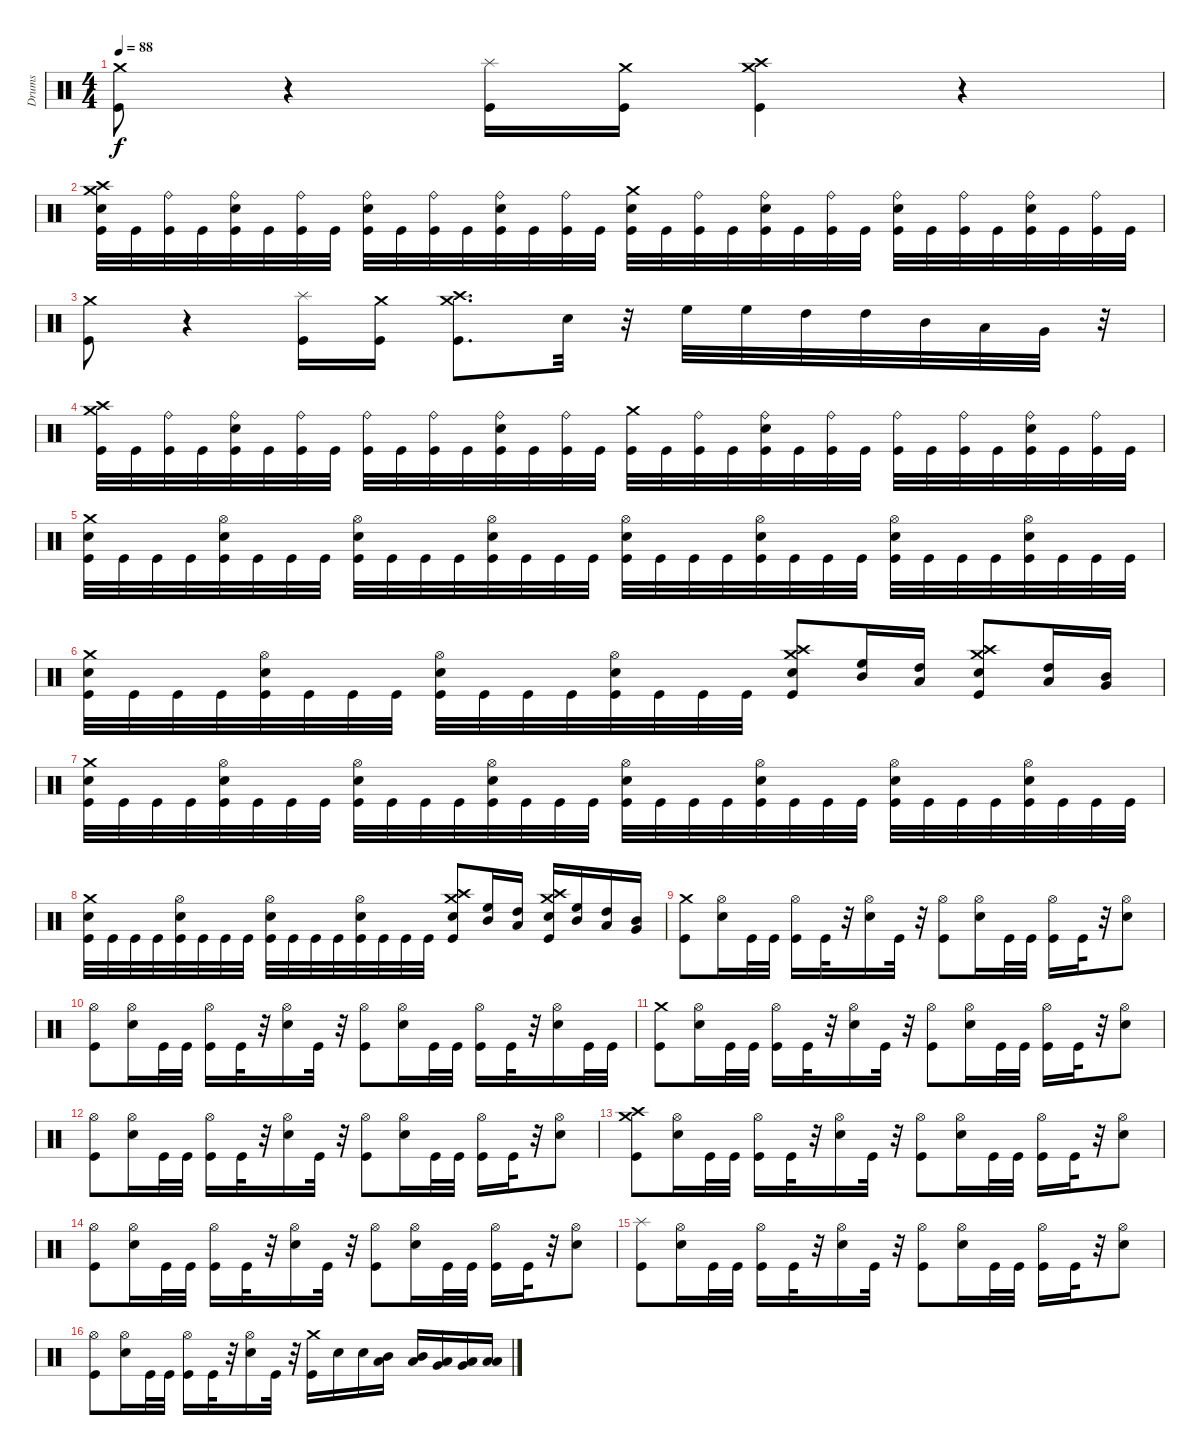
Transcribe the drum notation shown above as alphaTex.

\track ("Drums" "Drums") {instrument percussion}
\staff {score}
\articulation defaults
\ts (4 4)
\tempo 88
\clef neutral
\ks c
("Kick (hit)" "Crash medium (hit)").8{dy f} r.4 ("Splash (hit)" "Kick (hit)").16 ("Crash medium (hit)" "Kick (hit)").16 ("Crash medium (hit)" "Crash high (hit)" "Kick (hit)").4 r.4 |
("Snare (hit) 2" "Crash high (hit)" "Crash medium (hit)" "Kick (hit)").32 "Kick (hit)".32 ("Ride (bell)" "Kick (hit)").32 "Kick (hit)".32 ("Snare (hit) 2" "Ride (bell)" "Kick (hit)").32 "Kick (hit)".32 ("Ride (bell)" "Kick (hit)").32 "Kick (hit)".32 ("Snare (hit) 2" "Ride (bell)" "Kick (hit)").32 "Kick (hit)".32 ("Ride (bell)" "Kick (hit)").32 "Kick (hit)".32 ("Snare (hit) 2" "Ride (bell)" "Kick (hit)").32 "Kick (hit)".32 ("Ride (bell)" "Kick (hit)").32 "Kick (hit)".32 ("Snare (hit) 2" "Crash medium (hit)" "Kick (hit)").32 "Kick (hit)".32 ("Ride (bell)" "Kick (hit)").32 "Kick (hit)".32 ("Snare (hit) 2" "Ride (bell)" "Kick (hit)").32 "Kick (hit)".32 ("Ride (bell)" "Kick (hit)").32 "Kick (hit)".32 ("Snare (hit) 2" "Ride (bell)" "Kick (hit)").32 "Kick (hit)".32 ("Ride (bell)" "Kick (hit)").32 "Kick (hit)".32 ("Snare (hit) 2" "Ride (bell)" "Kick (hit)").32 "Kick (hit)".32 ("Ride (bell)" "Kick (hit)").32 "Kick (hit)".32 |
("Kick (hit)" "Crash medium (hit)").8 r.4 ("Splash (hit)" "Kick (hit)").16 ("Crash medium (hit)" "Kick (hit)").16 ("Crash medium (hit)" "Crash high (hit)" "Kick (hit)").8{d} "Snare (hit) 2".32 r.32 "High Floor Tom (hit)".32 "High Floor Tom (hit)".32 "High Tom (hit)".32 "High Tom (hit)".32 "Mid Tom (hit)".32 "Low Tom (hit)".32 "Very Low Tom (hit)".32 r.32 |
("Crash high (hit)" "Crash medium (hit)" "Kick (hit)").32 "Kick (hit)".32 ("Ride (bell)" "Kick (hit)").32 "Kick (hit)".32 ("Snare (hit) 2" "Ride (bell)" "Kick (hit)").32 "Kick (hit)".32 ("Ride (bell)" "Kick (hit)").32 "Kick (hit)".32 ("Ride (bell)" "Kick (hit)").32 "Kick (hit)".32 ("Ride (bell)" "Kick (hit)").32 "Kick (hit)".32 ("Snare (hit) 2" "Ride (bell)" "Kick (hit)").32 "Kick (hit)".32 ("Ride (bell)" "Kick (hit)").32 "Kick (hit)".32 ("Crash medium (hit)" "Kick (hit)").32 "Kick (hit)".32 ("Ride (bell)" "Kick (hit)").32 "Kick (hit)".32 ("Snare (hit) 2" "Ride (bell)" "Kick (hit)").32 "Kick (hit)".32 ("Ride (bell)" "Kick (hit)").32 "Kick (hit)".32 ("Ride (bell)" "Kick (hit)").32 "Kick (hit)".32 ("Ride (bell)" "Kick (hit)").32 "Kick (hit)".32 ("Snare (hit) 2" "Ride (bell)" "Kick (hit)").32 "Kick (hit)".32 ("Ride (bell)" "Kick (hit)").32 "Kick (hit)".32 |
("Crash medium (hit)" "Kick (hit)" "Snare (hit) 2").32 "Kick (hit)".32 "Kick (hit)".32 "Kick (hit)".32 ("Hi-Hat (open)" "Snare (hit) 2" "Kick (hit)").32 "Kick (hit)".32 "Kick (hit)".32 "Kick (hit)".32 ("Hi-Hat (open)" "Kick (hit)" "Snare (hit) 2").32 "Kick (hit)".32 "Kick (hit)".32 "Kick (hit)".32 ("Hi-Hat (open)" "Kick (hit)" "Snare (hit) 2").32 "Kick (hit)".32 "Kick (hit)".32 "Kick (hit)".32 ("Hi-Hat (open)" "Kick (hit)" "Snare (hit) 2").32 "Kick (hit)".32 "Kick (hit)".32 "Kick (hit)".32 ("Hi-Hat (open)" "Kick (hit)" "Snare (hit) 2").32 "Kick (hit)".32 "Kick (hit)".32 "Kick (hit)".32 ("Hi-Hat (open)" "Kick (hit)" "Snare (hit) 2").32 "Kick (hit)".32 "Kick (hit)".32 "Kick (hit)".32 ("Hi-Hat (open)" "Kick (hit)" "Snare (hit) 2").32 "Kick (hit)".32 "Kick (hit)".32 "Kick (hit)".32 |
("Crash medium (hit)" "Kick (hit)" "Snare (hit) 2").32 "Kick (hit)".32 "Kick (hit)".32 "Kick (hit)".32 ("Hi-Hat (open)" "Snare (hit) 2" "Kick (hit)").32 "Kick (hit)".32 "Kick (hit)".32 "Kick (hit)".32 ("Hi-Hat (open)" "Kick (hit)" "Snare (hit) 2").32 "Kick (hit)".32 "Kick (hit)".32 "Kick (hit)".32 ("Hi-Hat (open)" "Kick (hit)" "Snare (hit) 2").32 "Kick (hit)".32 "Kick (hit)".32 "Kick (hit)".32 ("Crash high (hit)" "Crash medium (hit)" "Kick (hit)" "Snare (hit) 2").8 ("Mid Tom (hit)" "High Floor Tom (hit)").16 ("Low Tom (hit)" "High Tom (hit)").16 ("Crash high (hit)" "Kick (hit)" "Snare (hit) 2" "Crash medium (hit)").8 ("Low Tom (hit)" "High Tom (hit)").16 ("Very Low Tom (hit)" "Mid Tom (hit)").16 |
("Crash medium (hit)" "Kick (hit)" "Snare (hit) 2").32 "Kick (hit)".32 "Kick (hit)".32 "Kick (hit)".32 ("Hi-Hat (open)" "Snare (hit) 2" "Kick (hit)").32 "Kick (hit)".32 "Kick (hit)".32 "Kick (hit)".32 ("Hi-Hat (open)" "Kick (hit)" "Snare (hit) 2").32 "Kick (hit)".32 "Kick (hit)".32 "Kick (hit)".32 ("Hi-Hat (open)" "Kick (hit)" "Snare (hit) 2").32 "Kick (hit)".32 "Kick (hit)".32 "Kick (hit)".32 ("Hi-Hat (open)" "Kick (hit)" "Snare (hit) 2").32 "Kick (hit)".32 "Kick (hit)".32 "Kick (hit)".32 ("Hi-Hat (open)" "Kick (hit)" "Snare (hit) 2").32 "Kick (hit)".32 "Kick (hit)".32 "Kick (hit)".32 ("Hi-Hat (open)" "Kick (hit)" "Snare (hit) 2").32 "Kick (hit)".32 "Kick (hit)".32 "Kick (hit)".32 ("Hi-Hat (open)" "Kick (hit)" "Snare (hit) 2").32 "Kick (hit)".32 "Kick (hit)".32 "Kick (hit)".32 |
("Crash medium (hit)" "Kick (hit)" "Snare (hit) 2").32 "Kick (hit)".32 "Kick (hit)".32 "Kick (hit)".32 ("Hi-Hat (open)" "Snare (hit) 2" "Kick (hit)").32 "Kick (hit)".32 "Kick (hit)".32 "Kick (hit)".32 ("Hi-Hat (open)" "Kick (hit)" "Snare (hit) 2").32 "Kick (hit)".32 "Kick (hit)".32 "Kick (hit)".32 ("Hi-Hat (open)" "Kick (hit)" "Snare (hit) 2").32 "Kick (hit)".32 "Kick (hit)".32 "Kick (hit)".32 ("Crash high (hit)" "Crash medium (hit)" "Kick (hit)" "Snare (hit) 2").8 ("Mid Tom (hit)" "High Floor Tom (hit)").16 ("Low Tom (hit)" "High Tom (hit)").16 ("Crash high (hit)" "Kick (hit)" "Snare (hit) 2" "Crash medium (hit)").16 ("Mid Tom (hit)" "High Floor Tom (hit)").16 ("Low Tom (hit)" "High Tom (hit)").16 ("Very Low Tom (hit)" "Mid Tom (hit)").16 |
("Crash medium (hit)" "Kick (hit)").8 ("Snare (hit) 2" "Hi-Hat (open)").16 "Kick (hit)".32 "Kick (hit)".32 ("Kick (hit)" "Hi-Hat (open)").16 "Kick (hit)".32 r.32 ("Snare (hit) 2" "Hi-Hat (open)").16 "Kick (hit)".32 r.32 ("Kick (hit)" "Hi-Hat (open)").8 ("Snare (hit) 2" "Hi-Hat (open)").16 "Kick (hit)".32 "Kick (hit)".32 ("Kick (hit)" "Hi-Hat (open)").16 "Kick (hit)".32 r.32 ("Snare (hit) 2" "Hi-Hat (open)").8 |
("Hi-Hat (open)" "Kick (hit)").8 ("Snare (hit) 2" "Hi-Hat (open)").16 "Kick (hit)".32 "Kick (hit)".32 ("Kick (hit)" "Hi-Hat (open)").16 "Kick (hit)".32 r.32 ("Snare (hit) 2" "Hi-Hat (open)").16 "Kick (hit)".32 r.32 ("Kick (hit)" "Hi-Hat (open)").8 ("Snare (hit) 2" "Hi-Hat (open)").16 "Kick (hit)".32 "Kick (hit)".32 ("Kick (hit)" "Hi-Hat (open)").16 "Kick (hit)".32 r.32 ("Snare (hit) 2" "Hi-Hat (open)").16 "Kick (hit)".32 "Kick (hit)".32 |
("Crash medium (hit)" "Kick (hit)").8 ("Snare (hit) 2" "Hi-Hat (open)").16 "Kick (hit)".32 "Kick (hit)".32 ("Kick (hit)" "Hi-Hat (open)").16 "Kick (hit)".32 r.32 ("Snare (hit) 2" "Hi-Hat (open)").16 "Kick (hit)".32 r.32 ("Kick (hit)" "Hi-Hat (open)").8 ("Snare (hit) 2" "Hi-Hat (open)").16 "Kick (hit)".32 "Kick (hit)".32 ("Kick (hit)" "Hi-Hat (open)").16 "Kick (hit)".32 r.32 ("Snare (hit) 2" "Hi-Hat (open)").8 |
("Hi-Hat (open)" "Kick (hit)").8 ("Snare (hit) 2" "Hi-Hat (open)").16 "Kick (hit)".32 "Kick (hit)".32 ("Kick (hit)" "Hi-Hat (open)").16 "Kick (hit)".32 r.32 ("Snare (hit) 2" "Hi-Hat (open)").16 "Kick (hit)".32 r.32 ("Kick (hit)" "Hi-Hat (open)").8 ("Snare (hit) 2" "Hi-Hat (open)").16 "Kick (hit)".32 "Kick (hit)".32 ("Kick (hit)" "Hi-Hat (open)").16 "Kick (hit)".32 r.32 ("Snare (hit) 2" "Hi-Hat (open)").8 |
("Crash medium (hit)" "Crash high (hit)" "Kick (hit)").8 ("Snare (hit) 2" "Hi-Hat (open)").16 "Kick (hit)".32 "Kick (hit)".32 ("Kick (hit)" "Hi-Hat (open)").16 "Kick (hit)".32 r.32 ("Snare (hit) 2" "Hi-Hat (open)").16 "Kick (hit)".32 r.32 ("Kick (hit)" "Hi-Hat (open)").8 ("Snare (hit) 2" "Hi-Hat (open)").16 "Kick (hit)".32 "Kick (hit)".32 ("Kick (hit)" "Hi-Hat (open)").16 "Kick (hit)".32 r.32 ("Snare (hit) 2" "Hi-Hat (open)").8 |
("Hi-Hat (open)" "Kick (hit)").8 ("Snare (hit) 2" "Hi-Hat (open)").16 "Kick (hit)".32 "Kick (hit)".32 ("Kick (hit)" "Hi-Hat (open)").16 "Kick (hit)".32 r.32 ("Snare (hit) 2" "Hi-Hat (open)").16 "Kick (hit)".32 r.32 ("Kick (hit)" "Hi-Hat (open)").8 ("Snare (hit) 2" "Hi-Hat (open)").16 "Kick (hit)".32 "Kick (hit)".32 ("Kick (hit)" "Hi-Hat (open)").16 "Kick (hit)".32 r.32 ("Snare (hit) 2" "Hi-Hat (open)").8 |
("Splash (hit)" "Kick (hit)").8 ("Snare (hit) 2" "Hi-Hat (open)").16 "Kick (hit)".32 "Kick (hit)".32 ("Kick (hit)" "Hi-Hat (open)").16 "Kick (hit)".32 r.32 ("Snare (hit) 2" "Hi-Hat (open)").16 "Kick (hit)".32 r.32 ("Kick (hit)" "Hi-Hat (open)").8 ("Snare (hit) 2" "Hi-Hat (open)").16 "Kick (hit)".32 "Kick (hit)".32 ("Kick (hit)" "Hi-Hat (open)").16 "Kick (hit)".32 r.32 ("Snare (hit) 2" "Hi-Hat (open)").8 |
("Hi-Hat (open)" "Kick (hit)").8 ("Snare (hit) 2" "Hi-Hat (open)").16 "Kick (hit)".32 "Kick (hit)".32 ("Kick (hit)" "Hi-Hat (open)").16 "Kick (hit)".32 r.32 ("Snare (hit) 2" "Hi-Hat (open)").16 "Kick (hit)".32 r.32 ("Kick (hit)" "Crash medium (hit)").16 "Snare (hit) 2".16 "Snare (hit) 2".16 ("Low Tom (hit)" "Mid Tom (hit)").16 ("Low Tom (hit)" "Mid Tom (hit)").16 ("Very Low Tom (hit)" "Low Tom (hit)").16 ("Low Floor Tom (hit)" "Very Low Tom (hit)").16 ("Low Floor Tom (hit)" "Low Floor Tom (hit)").16
